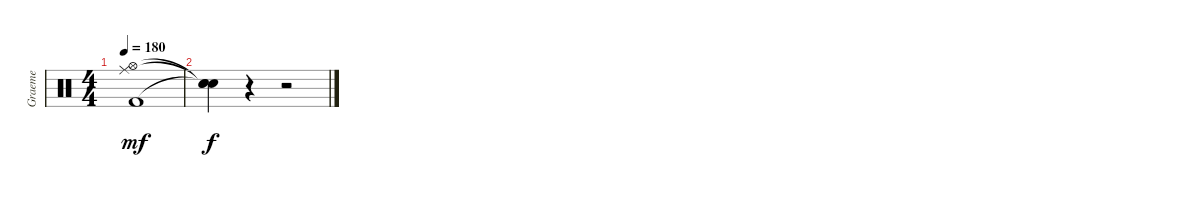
\track ("Graeme" "Graeme") {instrument percussion}
\staff {score}
\articulation defaults
\ts (4 4)
\tempo 180
\clef neutral
\ks c
("Ride (middle)" "Hi-Hat (open)" "Kick (hit) 2").1{dy mf} |
("Snare (hit)"{t} "Snare (hit)"{t} "Snare (hit)"{t}).4{dy f} r.4 r.2
